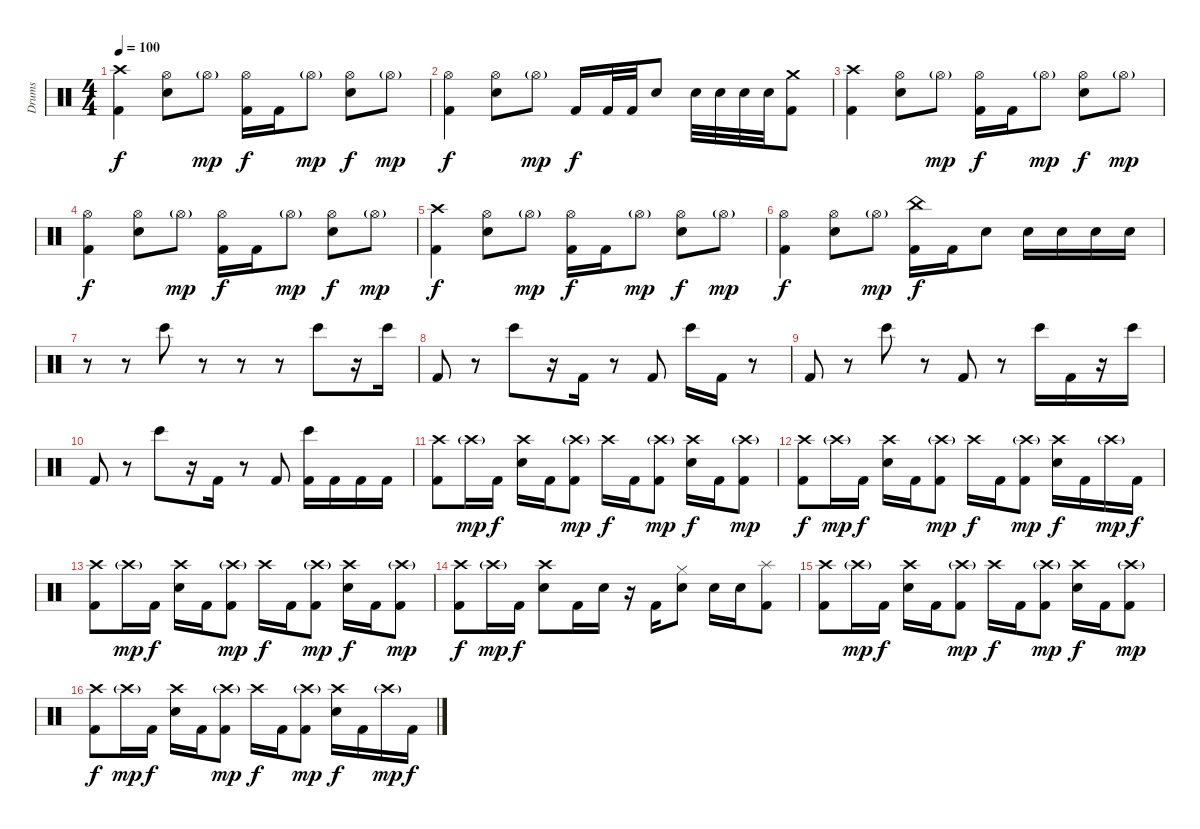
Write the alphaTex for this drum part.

\track ("Drums" "Drums") {instrument percussion}
\staff {score}
\articulation defaults
\ts (4 4)
\tempo 100
\clef neutral
\ks c
("Crash high (hit)" "Kick (hit) 2").4{dy f} ("Hi-Hat (open)" "Snare (hit) 2").8 "Hi-Hat (open)"{g}.8{dy mp} ("Hi-Hat (open)" "Kick (hit) 2").16{dy f} "Kick (hit) 2".16 "Hi-Hat (open)"{g}.8{dy mp} ("Hi-Hat (open)" "Snare (hit) 2").8{dy f} "Hi-Hat (open)"{g}.8{dy mp} |
("Hi-Hat (open)" "Kick (hit) 2").4{dy f} ("Hi-Hat (open)" "Snare (hit) 2").8 "Hi-Hat (open)"{g}.8{dy mp} "Kick (hit) 2".16{dy f} "Kick (hit) 2".32 "Kick (hit) 2".32 "Snare (hit) 2".8 "Snare (hit) 2".32 "Snare (hit) 2".32 "Snare (hit) 2".32 "Snare (hit) 2".32 ("Crash medium (hit)" "Kick (hit) 2").8 |
("Crash high (hit)" "Kick (hit) 2").4 ("Hi-Hat (open)" "Snare (hit) 2").8 "Hi-Hat (open)"{g}.8{dy mp} ("Hi-Hat (open)" "Kick (hit) 2").16{dy f} "Kick (hit) 2".16 "Hi-Hat (open)"{g}.8{dy mp} ("Hi-Hat (open)" "Snare (hit) 2").8{dy f} "Hi-Hat (open)"{g}.8{dy mp} |
("Hi-Hat (open)" "Kick (hit) 2").4{dy f} ("Hi-Hat (open)" "Snare (hit) 2").8 "Hi-Hat (open)"{g}.8{dy mp} ("Hi-Hat (open)" "Kick (hit) 2").16{dy f} "Kick (hit) 2".16 "Hi-Hat (open)"{g}.8{dy mp} ("Hi-Hat (open)" "Snare (hit) 2").8{dy f} "Hi-Hat (open)"{g}.8{dy mp} |
("Crash high (hit)" "Kick (hit) 2").4{dy f} ("Hi-Hat (open)" "Snare (hit) 2").8 "Hi-Hat (open)"{g}.8{dy mp} ("Hi-Hat (open)" "Kick (hit) 2").16{dy f} "Kick (hit) 2".16 "Hi-Hat (open)"{g}.8{dy mp} ("Hi-Hat (open)" "Snare (hit) 2").8{dy f} "Hi-Hat (open)"{g}.8{dy mp} |
("Hi-Hat (open)" "Kick (hit) 2").4{dy f} ("Hi-Hat (open)" "Snare (hit) 2").8 "Hi-Hat (open)"{g}.8{dy mp} ("China (hit)" "Kick (hit) 2").16{dy f} "Kick (hit) 2".16 "Snare (hit) 2".8 "Snare (hit) 2".16 "Snare (hit) 2".16 "Snare (hit) 2".16 "Snare (hit) 2".16 |
r.8{volume 8} r.8 "Bongo High (hit)".8 r.8 r.8 r.8 "Bongo High (hit)".8{volume 10} r.16 "Bongo High (hit)".16 |
"Kick (hit) 2".8 r.8 "Bongo High (hit)".8 r.16 "Kick (hit) 2".16 r.8 "Kick (hit) 2".8 "Bongo High (hit)".16 "Kick (hit) 2".16 r.8 |
"Kick (hit) 2".8 r.8 "Bongo High (hit)".8 r.8 "Kick (hit) 2".8 r.8 "Bongo High (hit)".16 "Kick (hit) 2".16 r.16 "Bongo High (hit)".16 |
"Kick (hit) 2".8 r.8 "Bongo High (hit)".8 r.16 "Kick (hit) 2".16 r.8{volume 14} "Kick (hit) 2".8 ("Bongo High (hit)" "Kick (hit) 2").16 "Kick (hit) 2".16 "Kick (hit) 2".16 "Kick (hit) 2".16 |
("Crash high (hit)" "Kick (hit) 2").8 "Crash high (hit)"{g}.16{dy mp} "Kick (hit) 2".16{dy f} ("Crash high (hit)" "Snare (hit) 2").16 "Kick (hit) 2".16 ("Crash high (hit)"{g} "Kick (hit) 2").8{dy mp} "Crash high (hit)".16{dy f} "Kick (hit) 2".16 ("Crash high (hit)"{g} "Kick (hit) 2").8{dy mp} ("Crash high (hit)" "Snare (hit) 2").16{dy f} "Kick (hit) 2".16 ("Crash high (hit)"{g} "Kick (hit) 2").8{dy mp} |
("Crash high (hit)" "Kick (hit) 2").8{dy f} "Crash high (hit)"{g}.16{dy mp} "Kick (hit) 2".16{dy f} ("Crash high (hit)" "Snare (hit) 2").16 "Kick (hit) 2".16 ("Crash high (hit)"{g} "Kick (hit) 2").8{dy mp} "Crash high (hit)".16{dy f} "Kick (hit) 2".16 ("Crash high (hit)"{g} "Kick (hit) 2").8{dy mp} ("Crash high (hit)" "Snare (hit) 2").16{dy f} "Kick (hit) 2".16 "Crash high (hit)"{g}.16{dy mp} "Kick (hit) 2".16{dy f} |
("Crash high (hit)" "Kick (hit) 2").8 "Crash high (hit)"{g}.16{dy mp} "Kick (hit) 2".16{dy f} ("Crash high (hit)" "Snare (hit) 2").16 "Kick (hit) 2".16 ("Crash high (hit)"{g} "Kick (hit) 2").8{dy mp} "Crash high (hit)".16{dy f} "Kick (hit) 2".16 ("Crash high (hit)"{g} "Kick (hit) 2").8{dy mp} ("Crash high (hit)" "Snare (hit) 2").16{dy f} "Kick (hit) 2".16 ("Crash high (hit)"{g} "Kick (hit) 2").8{dy mp} |
("Crash high (hit)" "Kick (hit) 2").8{dy f} "Crash high (hit)"{g}.16{dy mp} "Kick (hit) 2".16{dy f} ("Crash high (hit)" "Snare (hit) 2").8 "Kick (hit) 2".16 "Snare (hit) 2".16 r.16 "Kick (hit) 2".16 ("Hi-Hat (closed)" "Snare (hit) 2").8 "Snare (hit) 2".16 "Snare (hit) 2".16 ("Splash (hit)" "Kick (hit) 2").8 |
("Crash high (hit)" "Kick (hit) 2").8 "Crash high (hit)"{g}.16{dy mp} "Kick (hit) 2".16{dy f} ("Crash high (hit)" "Snare (hit) 2").16 "Kick (hit) 2".16 ("Crash high (hit)"{g} "Kick (hit) 2").8{dy mp} "Crash high (hit)".16{dy f} "Kick (hit) 2".16 ("Crash high (hit)"{g} "Kick (hit) 2").8{dy mp} ("Crash high (hit)" "Snare (hit) 2").16{dy f} "Kick (hit) 2".16 ("Crash high (hit)"{g} "Kick (hit) 2").8{dy mp} |
("Crash high (hit)" "Kick (hit) 2").8{dy f} "Crash high (hit)"{g}.16{dy mp} "Kick (hit) 2".16{dy f} ("Crash high (hit)" "Snare (hit) 2").16 "Kick (hit) 2".16 ("Crash high (hit)"{g} "Kick (hit) 2").8{dy mp} "Crash high (hit)".16{dy f} "Kick (hit) 2".16 ("Crash high (hit)"{g} "Kick (hit) 2").8{dy mp} ("Crash high (hit)" "Snare (hit) 2").16{dy f} "Kick (hit) 2".16 "Crash high (hit)"{g}.16{dy mp} "Kick (hit) 2".16{dy f}
